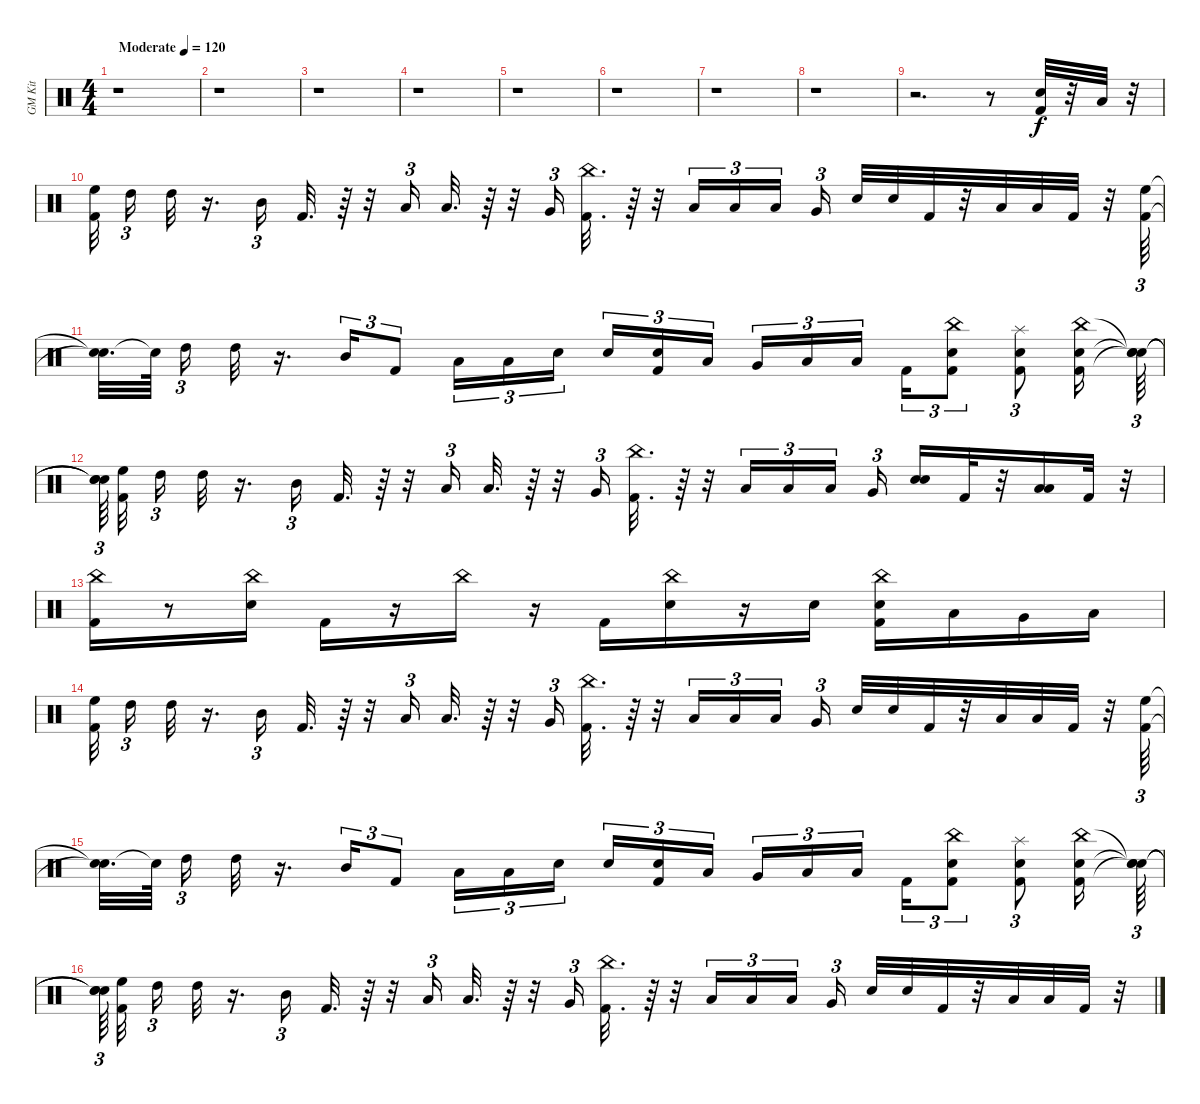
\track ("GM Kit" "GM Kit") {instrument percussion}
\staff {score}
\articulation defaults
\ts (4 4)
\tempo (120 "Moderate")
\clef neutral
\ks c
r.1{dy f} |
r.1 |
r.1 |
r.1 |
r.1 |
r.1 |
r.1 |
r.1 |
r.2{d} r.8 ("Kick (hit) 2" "Snare (hit) 2").32 r.32 "Low Floor Tom (hit)".32 r.32 |
("Kick (hit) 2" "High Floor Tom (hit)").32{beam splitsecondary} "High Tom (hit)".16{tu (3 2)} "High Tom (hit)".32 r.16{d} "Mid Tom (hit)".16{tu (3 2)} "Kick (hit) 2".32{d} r.64 r.32 "Low Tom (hit)".16{tu (3 2)} "Low Tom (hit)".32{d} r.64 r.32 "Very Low Tom (hit)".16{tu (3 2)} ("Kick (hit) 2" "China (hit)").32{d} r.64 r.32 "Low Floor Tom (hit)".16{tu (3 2)} "Low Floor Tom (hit)".16{tu (3 2)} "Low Tom (hit)".16{tu (3 2) beam splitsecondary} "Very Low Tom (hit)".16{tu (3 2)} "Snare (hit) 2".32 "Snare (hit) 2".32 "Kick (hit) 2".32 r.32 "Low Floor Tom (hit)".32 "Low Floor Tom (hit)".32 "Kick (hit) 2".32 r.32 ("Kick (hit) 2" "High Floor Tom (hit)").64{tu (3 2)} |
("Snare (hit)"{t} "Snare (hit)"{t}).32{d} "Snare (hit)"{t}.64{beam splitsecondary} "High Tom (hit)".16{tu (3 2)} "High Tom (hit)".32 r.16{d} "Mid Tom (hit)".16{tu (3 2)} "Kick (hit) 2".8{tu (3 2)} "Low Tom (hit)".16{tu (3 2)} "Low Tom (hit)".16{tu (3 2)} "Snare (hit) 2".16{tu (3 2) beam splitsecondary} "Snare (hit) 2".16{tu (3 2)} ("Kick (hit) 2" "Snare (hit) 2").16{tu (3 2)} "Low Floor Tom (hit)".16{tu (3 2) beam splitsecondary} "Very Low Tom (hit)".16{tu (3 2)} "Low Floor Tom (hit)".16{tu (3 2)} "Low Floor Tom (hit)".16{tu (3 2) beam splitsecondary} "Kick (hit) 2".16{tu (3 2)} ("Kick (hit) 2" "Snare (hit) 2" "China (hit)").8{tu (3 2)} ("Kick (hit) 2" "Snare (hit) 2" "Splash (hit)").8{tu (3 2)} ("Kick (hit) 2" "Snare (hit) 2" "China (hit)").16 ("Snare (hit)"{t} "Snare (hit)"{t} "Snare (hit)"{t}).64{tu (3 2)} |
("Snare (hit)"{t} "Snare (hit)"{t} "Snare (hit)"{t}).64{tu (3 2) beam splitsecondary} ("Kick (hit) 2" "High Floor Tom (hit)").32{beam splitsecondary} "High Tom (hit)".16{tu (3 2)} "High Tom (hit)".32 r.16{d} "Mid Tom (hit)".16{tu (3 2)} "Kick (hit) 2".32{d} r.64 r.32 "Low Tom (hit)".16{tu (3 2)} "Low Tom (hit)".32{d} r.64 r.32 "Very Low Tom (hit)".16{tu (3 2)} ("Kick (hit) 2" "China (hit)").32{d} r.64 r.32 "Low Floor Tom (hit)".16{tu (3 2)} "Low Floor Tom (hit)".16{tu (3 2)} "Low Tom (hit)".16{tu (3 2) beam splitsecondary} "Very Low Tom (hit)".16{tu (3 2)} ("Snare (hit) 2" "Snare (hit) 2").16 "Kick (hit) 2".32 r.32 ("Low Floor Tom (hit)" "Low Floor Tom (hit)").16 "Kick (hit) 2".32 r.32 |
("Kick (hit) 2" "China (hit)").16 r.8 ("Snare (hit) 2" "China (hit)").16 "Kick (hit) 2".16 r.16 "China (hit)".16 r.16 "Kick (hit) 2".16 ("Snare (hit) 2" "China (hit)").16 r.16 "Snare (hit) 2".16 ("Kick (hit) 2" "Snare (hit) 2" "China (hit)").16 "Low Floor Tom (hit)".16 "Very Low Tom (hit)".16 "Low Floor Tom (hit)".16 |
("Kick (hit) 2" "High Floor Tom (hit)").32{beam splitsecondary} "High Tom (hit)".16{tu (3 2)} "High Tom (hit)".32 r.16{d} "Mid Tom (hit)".16{tu (3 2)} "Kick (hit) 2".32{d} r.64 r.32 "Low Tom (hit)".16{tu (3 2)} "Low Tom (hit)".32{d} r.64 r.32 "Very Low Tom (hit)".16{tu (3 2)} ("Kick (hit) 2" "China (hit)").32{d} r.64 r.32 "Low Floor Tom (hit)".16{tu (3 2)} "Low Floor Tom (hit)".16{tu (3 2)} "Low Tom (hit)".16{tu (3 2) beam splitsecondary} "Very Low Tom (hit)".16{tu (3 2)} "Snare (hit) 2".32 "Snare (hit) 2".32 "Kick (hit) 2".32 r.32 "Low Floor Tom (hit)".32 "Low Floor Tom (hit)".32 "Kick (hit) 2".32 r.32 ("Kick (hit) 2" "High Floor Tom (hit)").64{tu (3 2)} |
("Snare (hit)"{t} "Snare (hit)"{t}).32{d} "Snare (hit)"{t}.64{beam splitsecondary} "High Tom (hit)".16{tu (3 2)} "High Tom (hit)".32 r.16{d} "Mid Tom (hit)".16{tu (3 2)} "Kick (hit) 2".8{tu (3 2)} "Low Tom (hit)".16{tu (3 2)} "Low Tom (hit)".16{tu (3 2)} "Snare (hit) 2".16{tu (3 2) beam splitsecondary} "Snare (hit) 2".16{tu (3 2)} ("Kick (hit) 2" "Snare (hit) 2").16{tu (3 2)} "Low Floor Tom (hit)".16{tu (3 2) beam splitsecondary} "Very Low Tom (hit)".16{tu (3 2)} "Low Floor Tom (hit)".16{tu (3 2)} "Low Floor Tom (hit)".16{tu (3 2) beam splitsecondary} "Kick (hit) 2".16{tu (3 2)} ("Kick (hit) 2" "Snare (hit) 2" "China (hit)").8{tu (3 2)} ("Kick (hit) 2" "Snare (hit) 2" "Splash (hit)").8{tu (3 2)} ("Kick (hit) 2" "Snare (hit) 2" "China (hit)").16 ("Snare (hit)"{t} "Snare (hit)"{t} "Snare (hit)"{t}).64{tu (3 2)} |
("Snare (hit)"{t} "Snare (hit)"{t} "Snare (hit)"{t}).64{tu (3 2) beam splitsecondary} ("Kick (hit) 2" "High Floor Tom (hit)").32{beam splitsecondary} "High Tom (hit)".16{tu (3 2)} "High Tom (hit)".32 r.16{d} "Mid Tom (hit)".16{tu (3 2)} "Kick (hit) 2".32{d} r.64 r.32 "Low Tom (hit)".16{tu (3 2)} "Low Tom (hit)".32{d} r.64 r.32 "Very Low Tom (hit)".16{tu (3 2)} ("Kick (hit) 2" "China (hit)").32{d} r.64 r.32 "Low Floor Tom (hit)".16{tu (3 2)} "Low Floor Tom (hit)".16{tu (3 2)} "Low Tom (hit)".16{tu (3 2) beam splitsecondary} "Very Low Tom (hit)".16{tu (3 2)} "Snare (hit) 2".32 "Snare (hit) 2".32 "Kick (hit) 2".32 r.32 "Low Floor Tom (hit)".32 "Low Floor Tom (hit)".32 "Kick (hit) 2".32 r.32
